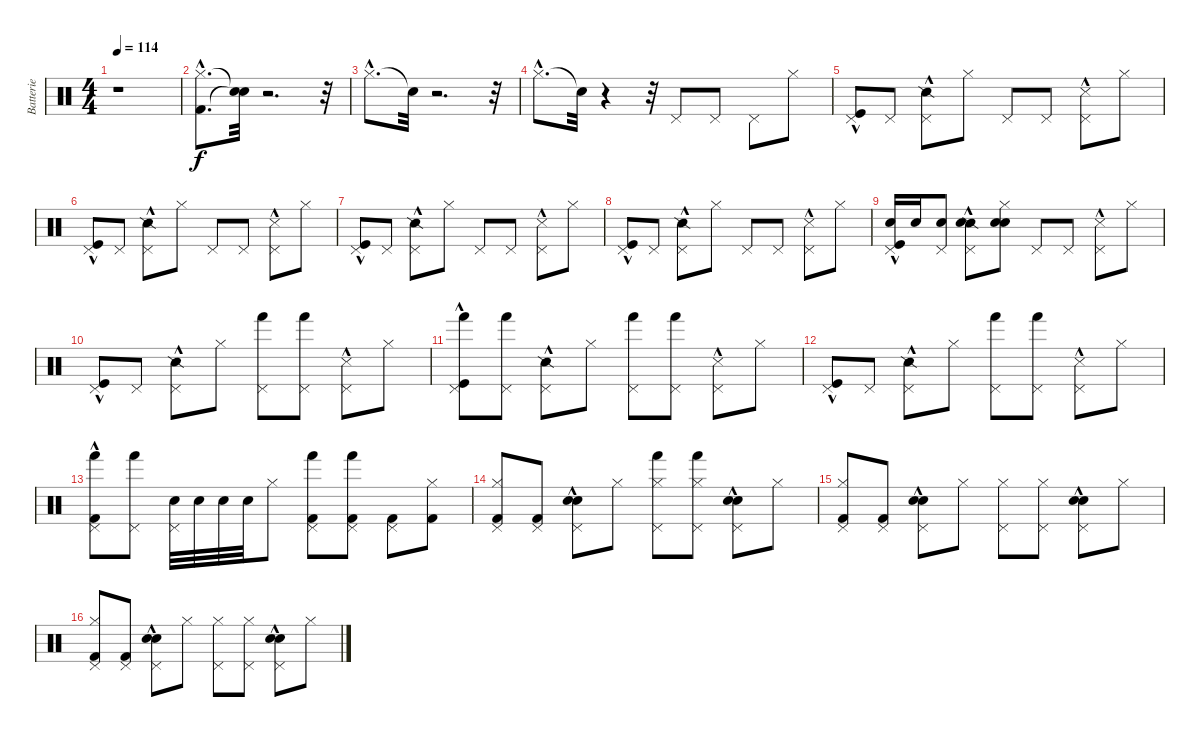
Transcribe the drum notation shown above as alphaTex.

\track ("Batterie" "Batterie") {instrument percussion}
\staff {score}
\articulation defaults
\ts (4 4)
\tempo 114
\clef neutral
\ks c
r.1{dy f} |
("Kick (hit) 2"{hac} "Hi-Hat (closed)"{hac}).8{d} ("Snare (hit)"{t} "Snare (hit)"{t}).32 r.2{d} r.32 |
"Hi-Hat (closed)"{hac}.8{d} "Snare (hit)"{t}.32 r.2{d} r.32 |
"Hi-Hat (closed)"{hac}.8{d} "Snare (hit)"{t}.32 r.4 r.32 "Pedal Hi-Hat (hit)".8 "Pedal Hi-Hat (hit)".8 "Pedal Hi-Hat (hit)".8 "Hi-Hat (closed)".8 |
("Kick (hit)"{hac} "Pedal Hi-Hat (hit)").8 "Pedal Hi-Hat (hit)".8 ("Snare (side stick) 2"{hac} "Pedal Hi-Hat (hit)").8 "Hi-Hat (closed)".8 "Pedal Hi-Hat (hit)".8 "Pedal Hi-Hat (hit)".8 ("Snare (side stick) 3"{hac} "Pedal Hi-Hat (hit)").8 "Hi-Hat (closed)".8 |
("Kick (hit)"{hac} "Pedal Hi-Hat (hit)").8 "Pedal Hi-Hat (hit)".8 ("Snare (side stick) 2"{hac} "Pedal Hi-Hat (hit)").8 "Hi-Hat (closed)".8 "Pedal Hi-Hat (hit)".8 "Pedal Hi-Hat (hit)".8 ("Snare (side stick) 3"{hac} "Pedal Hi-Hat (hit)").8 "Hi-Hat (closed)".8 |
("Kick (hit)"{hac} "Pedal Hi-Hat (hit)").8 "Pedal Hi-Hat (hit)".8 ("Snare (side stick) 2"{hac} "Pedal Hi-Hat (hit)").8 "Hi-Hat (closed)".8 "Pedal Hi-Hat (hit)".8 "Pedal Hi-Hat (hit)".8 ("Snare (side stick) 3"{hac} "Pedal Hi-Hat (hit)").8 "Hi-Hat (closed)".8 |
("Kick (hit)"{hac} "Pedal Hi-Hat (hit)").8 "Pedal Hi-Hat (hit)".8 ("Snare (side stick) 2"{hac} "Pedal Hi-Hat (hit)").8 "Hi-Hat (closed)".8 "Pedal Hi-Hat (hit)".8 "Pedal Hi-Hat (hit)".8 ("Snare (side stick) 3"{hac} "Pedal Hi-Hat (hit)").8 "Hi-Hat (closed)".8 |
("Kick (hit)"{hac} "Snare (hit) 2" "Pedal Hi-Hat (hit)").16 "Snare (hit) 2".16 ("Electric Snare (hit)" "Pedal Hi-Hat (hit)").8 ("Snare (side stick) 2"{hac} "Snare (hit) 2" "Pedal Hi-Hat (hit)").8 ("Snare (hit) 2" "Electric Snare (hit)" "Hi-Hat (closed)").8 "Pedal Hi-Hat (hit)".8 "Pedal Hi-Hat (hit)".8 ("Snare (side stick) 3"{hac} "Pedal Hi-Hat (hit)").8 "Hi-Hat (closed)".8 |
("Kick (hit)"{hac} "Pedal Hi-Hat (hit)").8 "Pedal Hi-Hat (hit)".8 ("Snare (side stick) 2"{hac} "Pedal Hi-Hat (hit)").8 "Hi-Hat (closed)".8 ("Pedal Hi-Hat (hit)" "Hand (hit)").8 ("Pedal Hi-Hat (hit)" "Hand (hit)").8 ("Snare (side stick) 3"{hac} "Pedal Hi-Hat (hit)").8 "Hi-Hat (closed)".8 |
("Kick (hit)"{hac} "Pedal Hi-Hat (hit)" "Hand (hit)").8 ("Pedal Hi-Hat (hit)" "Hand (hit)").8 ("Snare (side stick) 2"{hac} "Pedal Hi-Hat (hit)").8 "Hi-Hat (closed)".8 ("Pedal Hi-Hat (hit)" "Hand (hit)").8 ("Pedal Hi-Hat (hit)" "Hand (hit)").8 ("Snare (side stick) 3"{hac} "Pedal Hi-Hat (hit)").8 "Hi-Hat (closed)".8 |
("Kick (hit)"{hac} "Pedal Hi-Hat (hit)").8 "Pedal Hi-Hat (hit)".8 ("Snare (side stick) 2"{hac} "Pedal Hi-Hat (hit)").8 "Hi-Hat (closed)".8 ("Pedal Hi-Hat (hit)" "Hand (hit)").8 ("Pedal Hi-Hat (hit)" "Hand (hit)").8 ("Snare (side stick) 3"{hac} "Pedal Hi-Hat (hit)").8 "Hi-Hat (closed)".8 |
("Kick (hit) 2"{hac} "Pedal Hi-Hat (hit)" "Hand (hit)").8 ("Pedal Hi-Hat (hit)" "Hand (hit)").8 ("Snare (hit) 2" "Pedal Hi-Hat (hit)").32 "Electric Snare (hit)".32 "Snare (hit) 2".32 "Electric Snare (hit)".32 "Hi-Hat (closed)".8 ("Kick (hit) 2" "Pedal Hi-Hat (hit)" "Hand (hit)").8 ("Kick (hit) 2" "Pedal Hi-Hat (hit)" "Hand (hit)").8 ("Kick (hit) 2" "Pedal Hi-Hat (hit)").8 ("Kick (hit) 2" "Hi-Hat (closed)").8 |
("Kick (hit) 2" "Hi-Hat (closed)" "Pedal Hi-Hat (hit)").8 ("Kick (hit) 2" "Pedal Hi-Hat (hit)").8 ("Snare (hit) 2"{hac} "Electric Snare (hit)"{hac} "Pedal Hi-Hat (hit)").8 "Hi-Hat (closed)".8 ("Hi-Hat (closed)" "Pedal Hi-Hat (hit)" "Hand (hit)").8 ("Hi-Hat (closed)" "Pedal Hi-Hat (hit)" "Hand (hit)").8 ("Snare (hit) 2"{hac} "Electric Snare (hit)"{hac} "Pedal Hi-Hat (hit)").8 "Hi-Hat (closed)".8 |
("Kick (hit) 2" "Hi-Hat (closed)" "Pedal Hi-Hat (hit)").8 ("Kick (hit) 2" "Pedal Hi-Hat (hit)").8 ("Snare (hit) 2"{hac} "Electric Snare (hit)"{hac} "Pedal Hi-Hat (hit)").8 "Hi-Hat (closed)".8 ("Hi-Hat (closed)" "Pedal Hi-Hat (hit)").8 ("Hi-Hat (closed)" "Pedal Hi-Hat (hit)").8 ("Snare (hit) 2"{hac} "Electric Snare (hit)"{hac} "Pedal Hi-Hat (hit)").8 "Hi-Hat (closed)".8 |
("Kick (hit) 2" "Hi-Hat (closed)" "Pedal Hi-Hat (hit)").8 ("Kick (hit) 2" "Pedal Hi-Hat (hit)").8 ("Snare (hit) 2"{hac} "Electric Snare (hit)"{hac} "Pedal Hi-Hat (hit)").8 "Hi-Hat (closed)".8 ("Hi-Hat (closed)" "Pedal Hi-Hat (hit)").8 ("Hi-Hat (closed)" "Pedal Hi-Hat (hit)").8 ("Snare (hit) 2"{hac} "Electric Snare (hit)"{hac} "Pedal Hi-Hat (hit)").8 "Hi-Hat (closed)".8
